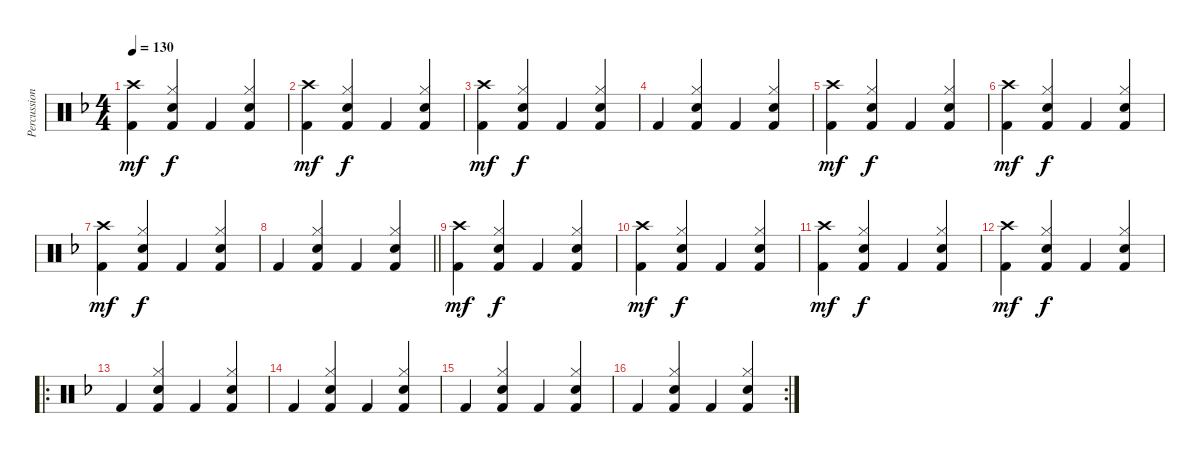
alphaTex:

\track ("Percussion" "Percussion") {instrument percussion}
\staff {score}
\articulation defaults
\ts (4 4)
\tempo 130
\clef neutral
\ks f
("Crash high (hit)" "Kick (hit) 2").4{dy mf} ("Hi-Hat (closed)" "Snare (hit) 2" "Kick (hit) 2").4{dy f} "Kick (hit) 2".4 ("Hi-Hat (closed)" "Snare (hit) 2" "Kick (hit) 2").4 |
("Crash high (hit)" "Kick (hit) 2").4{dy mf} ("Hi-Hat (closed)" "Snare (hit) 2" "Kick (hit) 2").4{dy f} "Kick (hit) 2".4 ("Hi-Hat (closed)" "Snare (hit) 2" "Kick (hit) 2").4 |
("Crash high (hit)" "Kick (hit) 2").4{dy mf} ("Hi-Hat (closed)" "Snare (hit) 2" "Kick (hit) 2").4{dy f} "Kick (hit) 2".4 ("Hi-Hat (closed)" "Snare (hit) 2" "Kick (hit) 2").4 |
"Kick (hit) 2".4 ("Hi-Hat (closed)" "Snare (hit) 2" "Kick (hit) 2").4 "Kick (hit) 2".4 ("Hi-Hat (closed)" "Snare (hit) 2" "Kick (hit) 2").4 |
("Crash high (hit)" "Kick (hit) 2").4{dy mf} ("Hi-Hat (closed)" "Snare (hit) 2" "Kick (hit) 2").4{dy f} "Kick (hit) 2".4 ("Hi-Hat (closed)" "Snare (hit) 2" "Kick (hit) 2").4 |
("Crash high (hit)" "Kick (hit) 2").4{dy mf} ("Hi-Hat (closed)" "Snare (hit) 2" "Kick (hit) 2").4{dy f} "Kick (hit) 2".4 ("Hi-Hat (closed)" "Snare (hit) 2" "Kick (hit) 2").4 |
("Crash high (hit)" "Kick (hit) 2").4{dy mf} ("Hi-Hat (closed)" "Snare (hit) 2" "Kick (hit) 2").4{dy f} "Kick (hit) 2".4 ("Hi-Hat (closed)" "Snare (hit) 2" "Kick (hit) 2").4 |
\barLineRight lightlight "Kick (hit) 2".4
("Hi-Hat (closed)" "Snare (hit) 2" "Kick (hit) 2").4 "Kick (hit) 2".4 ("Hi-Hat (closed)" "Snare (hit) 2" "Kick (hit) 2").4 |
("Crash high (hit)" "Kick (hit) 2").4{dy mf} ("Hi-Hat (closed)" "Snare (hit) 2" "Kick (hit) 2").4{dy f} "Kick (hit) 2".4 ("Hi-Hat (closed)" "Snare (hit) 2" "Kick (hit) 2").4 |
("Crash high (hit)" "Kick (hit) 2").4{dy mf} ("Hi-Hat (closed)" "Snare (hit) 2" "Kick (hit) 2").4{dy f} "Kick (hit) 2".4 ("Hi-Hat (closed)" "Snare (hit) 2" "Kick (hit) 2").4 |
("Crash high (hit)" "Kick (hit) 2").4{dy mf} ("Hi-Hat (closed)" "Snare (hit) 2" "Kick (hit) 2").4{dy f} "Kick (hit) 2".4 ("Hi-Hat (closed)" "Snare (hit) 2" "Kick (hit) 2").4 |
("Crash high (hit)" "Kick (hit) 2").4{dy mf} ("Hi-Hat (closed)" "Snare (hit) 2" "Kick (hit) 2").4{dy f} "Kick (hit) 2".4 ("Hi-Hat (closed)" "Snare (hit) 2" "Kick (hit) 2").4 |
\ro "Kick (hit) 2".4
("Hi-Hat (closed)" "Snare (hit) 2" "Kick (hit) 2").4 "Kick (hit) 2".4 ("Hi-Hat (closed)" "Snare (hit) 2" "Kick (hit) 2").4 |
"Kick (hit) 2".4 ("Hi-Hat (closed)" "Snare (hit) 2" "Kick (hit) 2").4 "Kick (hit) 2".4 ("Hi-Hat (closed)" "Snare (hit) 2" "Kick (hit) 2").4 |
"Kick (hit) 2".4 ("Hi-Hat (closed)" "Snare (hit) 2" "Kick (hit) 2").4 "Kick (hit) 2".4 ("Hi-Hat (closed)" "Snare (hit) 2" "Kick (hit) 2").4 |
\rc 2 "Kick (hit) 2".4
("Hi-Hat (closed)" "Snare (hit) 2" "Kick (hit) 2").4 "Kick (hit) 2".4 ("Hi-Hat (closed)" "Snare (hit) 2" "Kick (hit) 2").4
